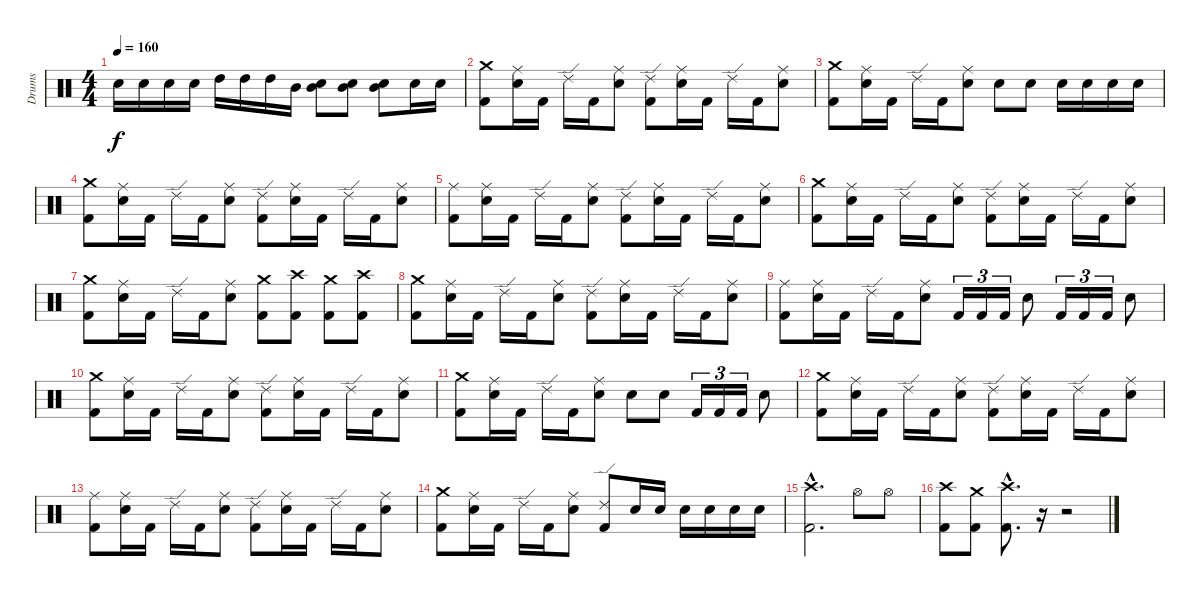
\track ("Drums" "Drums") {instrument percussion}
\staff {score}
\articulation defaults
\ts (4 4)
\tempo 160
\clef neutral
\ks c "Snare (hit) 2".16{dy f} "Snare (hit) 2".16 "Snare (hit) 2".16 "Snare (hit) 2".16 "High Tom (hit)".16 "High Tom (hit)".16 "High Tom (hit)".16 "Mid Tom (hit)".16
("Snare (hit) 2" "Mid Tom (hit)").8 ("Snare (hit) 2" "Mid Tom (hit)").8 ("Snare (hit) 2" "Mid Tom (hit)").8 "Snare (hit) 2".16 "Snare (hit) 2".16 |
("Crash medium (hit)" "Kick (hit) 2").8 ("Ride (middle)" "Snare (hit) 2").16 "Kick (hit) 2".16 "Ride (edge) 2".16 "Kick (hit) 2".16 ("Ride (middle)" "Snare (hit) 2").8 ("Ride (edge) 2" "Kick (hit) 2").8 ("Ride (middle)" "Snare (hit) 2").16 "Kick (hit) 2".16 "Ride (edge) 2".16 "Kick (hit) 2".16 ("Ride (middle)" "Snare (hit) 2").8 |
("Crash medium (hit)" "Kick (hit) 2").8 ("Ride (middle)" "Snare (hit) 2").16 "Kick (hit) 2".16 "Ride (edge) 2".16 "Kick (hit) 2".16 ("Ride (middle)" "Snare (hit) 2").8 "Snare (hit) 2".8 "Snare (hit) 2".8 "Snare (hit) 2".16 "Snare (hit) 2".16 "Snare (hit) 2".16 "Snare (hit) 2".16 |
("Crash medium (hit)" "Kick (hit) 2").8 ("Ride (middle)" "Snare (hit) 2").16 "Kick (hit) 2".16 "Ride (edge) 2".16 "Kick (hit) 2".16 ("Ride (middle)" "Snare (hit) 2").8 ("Ride (edge) 2" "Kick (hit) 2").8 ("Ride (middle)" "Snare (hit) 2").16 "Kick (hit) 2".16 "Ride (edge) 2".16 "Kick (hit) 2".16 ("Ride (middle)" "Snare (hit) 2").8 |
("Ride (middle)" "Kick (hit) 2").8 ("Ride (middle)" "Snare (hit) 2").16 "Kick (hit) 2".16 "Ride (edge) 2".16 "Kick (hit) 2".16 ("Ride (middle)" "Snare (hit) 2").8 ("Ride (edge) 2" "Kick (hit) 2").8 ("Ride (middle)" "Snare (hit) 2").16 "Kick (hit) 2".16 "Ride (edge) 2".16 "Kick (hit) 2".16 ("Ride (middle)" "Snare (hit) 2").8 |
("Crash medium (hit)" "Kick (hit) 2").8 ("Ride (middle)" "Snare (hit) 2").16 "Kick (hit) 2".16 "Ride (edge) 2".16 "Kick (hit) 2".16 ("Ride (middle)" "Snare (hit) 2").8 ("Ride (edge) 2" "Kick (hit) 2").8 ("Ride (middle)" "Snare (hit) 2").16 "Kick (hit) 2".16 "Ride (edge) 2".16 "Kick (hit) 2".16 ("Ride (middle)" "Snare (hit) 2").8 |
("Crash medium (hit)" "Kick (hit) 2").8 ("Ride (middle)" "Snare (hit) 2").16 "Kick (hit) 2".16 "Ride (edge) 2".16 "Kick (hit) 2".16 ("Ride (middle)" "Snare (hit) 2").8 ("Crash medium (hit)" "Kick (hit) 2").8 ("Crash high (hit)" "Kick (hit) 2").8 ("Crash medium (hit)" "Kick (hit) 2").8 ("Crash high (hit)" "Kick (hit) 2").8 |
("Crash medium (hit)" "Kick (hit) 2").8 ("Ride (middle)" "Snare (hit) 2").16 "Kick (hit) 2".16 "Ride (edge) 2".16 "Kick (hit) 2".16 ("Ride (middle)" "Snare (hit) 2").8 ("Ride (edge) 2" "Kick (hit) 2").8 ("Ride (middle)" "Snare (hit) 2").16 "Kick (hit) 2".16 "Ride (edge) 2".16 "Kick (hit) 2".16 ("Ride (middle)" "Snare (hit) 2").8 |
("Ride (middle)" "Kick (hit) 2").8 ("Ride (middle)" "Snare (hit) 2").16 "Kick (hit) 2".16 "Ride (edge) 2".16 "Kick (hit) 2".16 ("Ride (middle)" "Snare (hit) 2").8 "Kick (hit) 2".16{tu (3 2)} "Kick (hit) 2".16{tu (3 2)} "Kick (hit) 2".16{tu (3 2)} "Snare (hit) 2".8 "Kick (hit) 2".16{tu (3 2)} "Kick (hit) 2".16{tu (3 2)} "Kick (hit) 2".16{tu (3 2)} "Snare (hit) 2".8 |
("Crash medium (hit)" "Kick (hit) 2").8 ("Ride (middle)" "Snare (hit) 2").16 "Kick (hit) 2".16 "Ride (edge) 2".16 "Kick (hit) 2".16 ("Ride (middle)" "Snare (hit) 2").8 ("Ride (edge) 2" "Kick (hit) 2").8 ("Ride (middle)" "Snare (hit) 2").16 "Kick (hit) 2".16 "Ride (edge) 2".16 "Kick (hit) 2".16 ("Ride (middle)" "Snare (hit) 2").8 |
("Crash medium (hit)" "Kick (hit) 2").8 ("Ride (middle)" "Snare (hit) 2").16 "Kick (hit) 2".16 "Ride (edge) 2".16 "Kick (hit) 2".16 ("Ride (middle)" "Snare (hit) 2").8 "Snare (hit) 2".8 "Snare (hit) 2".8 "Kick (hit) 2".16{tu (3 2)} "Kick (hit) 2".16{tu (3 2)} "Kick (hit) 2".16{tu (3 2)} "Snare (hit) 2".8 |
("Crash medium (hit)" "Kick (hit) 2").8 ("Ride (middle)" "Snare (hit) 2").16 "Kick (hit) 2".16 "Ride (edge) 2".16 "Kick (hit) 2".16 ("Ride (middle)" "Snare (hit) 2").8 ("Ride (edge) 2" "Kick (hit) 2").8 ("Ride (middle)" "Snare (hit) 2").16 "Kick (hit) 2".16 "Ride (edge) 2".16 "Kick (hit) 2".16 ("Ride (middle)" "Snare (hit) 2").8 |
("Ride (middle)" "Kick (hit) 2").8 ("Ride (middle)" "Snare (hit) 2").16 "Kick (hit) 2".16 "Ride (edge) 2".16 "Kick (hit) 2".16 ("Ride (middle)" "Snare (hit) 2").8 ("Ride (edge) 2" "Kick (hit) 2").8 ("Ride (middle)" "Snare (hit) 2").16 "Kick (hit) 2".16 "Ride (edge) 2".16 "Kick (hit) 2".16 ("Ride (middle)" "Snare (hit) 2").8 |
("Crash medium (hit)" "Kick (hit) 2").8 ("Ride (middle)" "Snare (hit) 2").16 "Kick (hit) 2".16 "Ride (edge) 2".16 "Kick (hit) 2".16 ("Ride (middle)" "Snare (hit) 2").8 ("Ride (edge) 2" "Kick (hit) 2").8 "Snare (hit) 2".16 "Snare (hit) 2".16 "Snare (hit) 2".16 "Snare (hit) 2".16 "Snare (hit) 2".16 "Snare (hit) 2".16 |
("Crash high (hit)"{hac} "Kick (hit) 2"{hac}).2{d} "Hi-Hat (open)".8 "Hi-Hat (open)".8 |
("Crash high (hit)" "Kick (hit) 2").8 ("Crash medium (hit)" "Kick (hit) 2").8 ("Crash high (hit)"{hac} "Kick (hit) 2"{hac}).8{d} r.16 r.2
